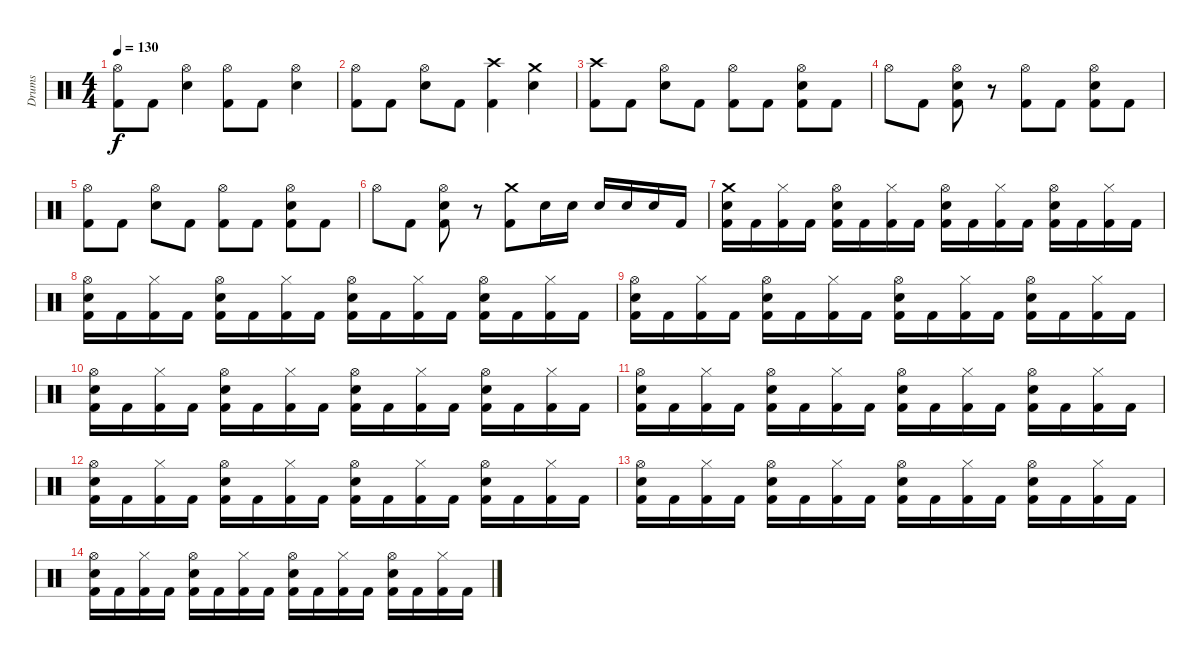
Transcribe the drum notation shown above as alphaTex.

\track ("Drums" "Drums") {instrument percussion}
\staff {score}
\articulation defaults
\ts (4 4)
\tempo 130
\clef neutral
\ks c
("Hi-Hat (open)" "Kick (hit) 2").8{dy f} "Kick (hit) 2".8 ("Hi-Hat (open)" "Electric Snare (hit)").4 ("Hi-Hat (open)" "Kick (hit) 2").8 "Kick (hit) 2".8 ("Hi-Hat (open)" "Electric Snare (hit)").4 |
("Hi-Hat (open)" "Kick (hit) 2").8 "Kick (hit) 2".8 ("Hi-Hat (open)" "Electric Snare (hit)").8 "Kick (hit) 2".8 ("Crash high (hit)" "Kick (hit) 2").4 ("Crash medium (hit)" "Electric Snare (hit)").4 |
("Crash high (hit)" "Kick (hit) 2").8 "Kick (hit) 2".8 ("Hi-Hat (open)" "Electric Snare (hit)").8 "Kick (hit) 2".8 ("Hi-Hat (open)" "Kick (hit) 2").8 "Kick (hit) 2".8 ("Hi-Hat (open)" "Electric Snare (hit)" "Kick (hit) 2").8 "Kick (hit) 2".8 |
"Hi-Hat (open)".8 "Kick (hit) 2".8 ("Hi-Hat (open)" "Electric Snare (hit)" "Kick (hit) 2").8 r.8 ("Hi-Hat (open)" "Kick (hit) 2").8 "Kick (hit) 2".8 ("Hi-Hat (open)" "Electric Snare (hit)" "Kick (hit) 2").8 "Kick (hit) 2".8 |
("Hi-Hat (open)" "Kick (hit) 2").8 "Kick (hit) 2".8 ("Hi-Hat (open)" "Electric Snare (hit)").8 "Kick (hit) 2".8 ("Hi-Hat (open)" "Kick (hit) 2").8 "Kick (hit) 2".8 ("Hi-Hat (open)" "Electric Snare (hit)" "Kick (hit) 2").8 "Kick (hit) 2".8 |
"Hi-Hat (open)".8 "Kick (hit) 2".8 ("Hi-Hat (open)" "Electric Snare (hit)" "Kick (hit) 2").8 r.8 ("Crash medium (hit)" "Kick (hit) 2").8 "Electric Snare (hit)".16 "Electric Snare (hit)".16 "Electric Snare (hit)".16 "Electric Snare (hit)".16 "Electric Snare (hit)".16 "Kick (hit) 2".16 |
("Crash medium (hit)" "Electric Snare (hit)" "Kick (hit) 2").16 "Kick (hit) 2".16 ("Hi-Hat (closed)" "Kick (hit) 2").16 "Kick (hit) 2".16 ("Hi-Hat (open)" "Electric Snare (hit)" "Kick (hit) 2").16 "Kick (hit) 2".16 ("Hi-Hat (closed)" "Kick (hit) 2").16 "Kick (hit) 2".16 ("Hi-Hat (open)" "Electric Snare (hit)" "Kick (hit) 2").16 "Kick (hit) 2".16 ("Hi-Hat (closed)" "Kick (hit) 2").16 "Kick (hit) 2".16 ("Hi-Hat (open)" "Electric Snare (hit)" "Kick (hit) 2").16 "Kick (hit) 2".16 ("Hi-Hat (closed)" "Kick (hit) 2").16 "Kick (hit) 2".16 |
("Hi-Hat (open)" "Electric Snare (hit)" "Kick (hit) 2").16 "Kick (hit) 2".16 ("Hi-Hat (closed)" "Kick (hit) 2").16 "Kick (hit) 2".16 ("Hi-Hat (open)" "Electric Snare (hit)" "Kick (hit) 2").16 "Kick (hit) 2".16 ("Hi-Hat (closed)" "Kick (hit) 2").16 "Kick (hit) 2".16 ("Hi-Hat (open)" "Electric Snare (hit)" "Kick (hit) 2").16 "Kick (hit) 2".16 ("Hi-Hat (closed)" "Kick (hit) 2").16 "Kick (hit) 2".16 ("Hi-Hat (open)" "Electric Snare (hit)" "Kick (hit) 2").16 "Kick (hit) 2".16 ("Hi-Hat (closed)" "Kick (hit) 2").16 "Kick (hit) 2".16 |
("Hi-Hat (open)" "Electric Snare (hit)" "Kick (hit) 2").16 "Kick (hit) 2".16 ("Hi-Hat (closed)" "Kick (hit) 2").16 "Kick (hit) 2".16 ("Hi-Hat (open)" "Electric Snare (hit)" "Kick (hit) 2").16 "Kick (hit) 2".16 ("Hi-Hat (closed)" "Kick (hit) 2").16 "Kick (hit) 2".16 ("Hi-Hat (open)" "Electric Snare (hit)" "Kick (hit) 2").16 "Kick (hit) 2".16 ("Hi-Hat (closed)" "Kick (hit) 2").16 "Kick (hit) 2".16 ("Hi-Hat (open)" "Electric Snare (hit)" "Kick (hit) 2").16 "Kick (hit) 2".16 ("Hi-Hat (closed)" "Kick (hit) 2").16 "Kick (hit) 2".16 |
("Hi-Hat (open)" "Electric Snare (hit)" "Kick (hit) 2").16 "Kick (hit) 2".16 ("Hi-Hat (closed)" "Kick (hit) 2").16 "Kick (hit) 2".16 ("Hi-Hat (open)" "Electric Snare (hit)" "Kick (hit) 2").16 "Kick (hit) 2".16 ("Hi-Hat (closed)" "Kick (hit) 2").16 "Kick (hit) 2".16 ("Hi-Hat (open)" "Electric Snare (hit)" "Kick (hit) 2").16 "Kick (hit) 2".16 ("Hi-Hat (closed)" "Kick (hit) 2").16 "Kick (hit) 2".16 ("Hi-Hat (open)" "Electric Snare (hit)" "Kick (hit) 2").16 "Kick (hit) 2".16 ("Hi-Hat (closed)" "Kick (hit) 2").16 "Kick (hit) 2".16 |
("Hi-Hat (open)" "Electric Snare (hit)" "Kick (hit) 2").16{volume 11} "Kick (hit) 2".16 ("Hi-Hat (closed)" "Kick (hit) 2").16 "Kick (hit) 2".16 ("Hi-Hat (open)" "Electric Snare (hit)" "Kick (hit) 2").16 "Kick (hit) 2".16 ("Hi-Hat (closed)" "Kick (hit) 2").16 "Kick (hit) 2".16 ("Hi-Hat (open)" "Electric Snare (hit)" "Kick (hit) 2").16 "Kick (hit) 2".16 ("Hi-Hat (closed)" "Kick (hit) 2").16 "Kick (hit) 2".16 ("Hi-Hat (open)" "Electric Snare (hit)" "Kick (hit) 2").16 "Kick (hit) 2".16 ("Hi-Hat (closed)" "Kick (hit) 2").16 "Kick (hit) 2".16 |
("Hi-Hat (open)" "Electric Snare (hit)" "Kick (hit) 2").16{volume 9} "Kick (hit) 2".16 ("Hi-Hat (closed)" "Kick (hit) 2").16 "Kick (hit) 2".16 ("Hi-Hat (open)" "Electric Snare (hit)" "Kick (hit) 2").16 "Kick (hit) 2".16 ("Hi-Hat (closed)" "Kick (hit) 2").16 "Kick (hit) 2".16 ("Hi-Hat (open)" "Electric Snare (hit)" "Kick (hit) 2").16 "Kick (hit) 2".16 ("Hi-Hat (closed)" "Kick (hit) 2").16 "Kick (hit) 2".16 ("Hi-Hat (open)" "Electric Snare (hit)" "Kick (hit) 2").16 "Kick (hit) 2".16 ("Hi-Hat (closed)" "Kick (hit) 2").16 "Kick (hit) 2".16 |
("Hi-Hat (open)" "Electric Snare (hit)" "Kick (hit) 2").16{volume 5} "Kick (hit) 2".16 ("Hi-Hat (closed)" "Kick (hit) 2").16 "Kick (hit) 2".16 ("Hi-Hat (open)" "Electric Snare (hit)" "Kick (hit) 2").16 "Kick (hit) 2".16 ("Hi-Hat (closed)" "Kick (hit) 2").16 "Kick (hit) 2".16 ("Hi-Hat (open)" "Electric Snare (hit)" "Kick (hit) 2").16 "Kick (hit) 2".16 ("Hi-Hat (closed)" "Kick (hit) 2").16 "Kick (hit) 2".16 ("Hi-Hat (open)" "Electric Snare (hit)" "Kick (hit) 2").16 "Kick (hit) 2".16 ("Hi-Hat (closed)" "Kick (hit) 2").16 "Kick (hit) 2".16 |
("Hi-Hat (open)" "Electric Snare (hit)" "Kick (hit) 2").16{volume 0} "Kick (hit) 2".16 ("Hi-Hat (closed)" "Kick (hit) 2").16 "Kick (hit) 2".16 ("Hi-Hat (open)" "Electric Snare (hit)" "Kick (hit) 2").16 "Kick (hit) 2".16 ("Hi-Hat (closed)" "Kick (hit) 2").16 "Kick (hit) 2".16 ("Hi-Hat (open)" "Electric Snare (hit)" "Kick (hit) 2").16 "Kick (hit) 2".16 ("Hi-Hat (closed)" "Kick (hit) 2").16 "Kick (hit) 2".16 ("Hi-Hat (open)" "Electric Snare (hit)" "Kick (hit) 2").16 "Kick (hit) 2".16 ("Hi-Hat (closed)" "Kick (hit) 2").16 "Kick (hit) 2".16
